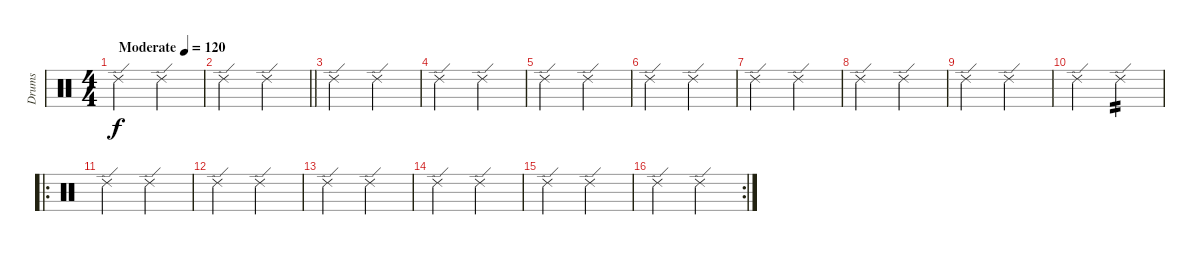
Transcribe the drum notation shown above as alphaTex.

\track ("Drums" "Drums") {instrument percussion}
\staff {score}
\articulation defaults
\ts (4 4)
\tempo (120 "Moderate")
\clef neutral
\ks c "Ride (edge) 2".2{dy f} "Ride (edge) 2".2
|
\barLineRight lightlight "Ride (edge) 2".2 "Ride (edge) 2".2
|
"Ride (edge) 2".2 "Ride (edge) 2".2 |
"Ride (edge) 2".2 "Ride (edge) 2".2 |
"Ride (edge) 2".2 "Ride (edge) 2".2 |
"Ride (edge) 2".2 "Ride (edge) 2".2 |
"Ride (edge) 2".2 "Ride (edge) 2".2 |
"Ride (edge) 2".2 "Ride (edge) 2".2 |
"Ride (edge) 2".2 "Ride (edge) 2".2 |
"Ride (edge) 2".2 "Ride (edge) 2".2{tp 2} |
\ro "Ride (edge) 2".2 "Ride (edge) 2".2
|
"Ride (edge) 2".2 "Ride (edge) 2".2 |
"Ride (edge) 2".2 "Ride (edge) 2".2 |
"Ride (edge) 2".2 "Ride (edge) 2".2 |
"Ride (edge) 2".2 "Ride (edge) 2".2 |
\rc 2 "Ride (edge) 2".2 "Ride (edge) 2".2
